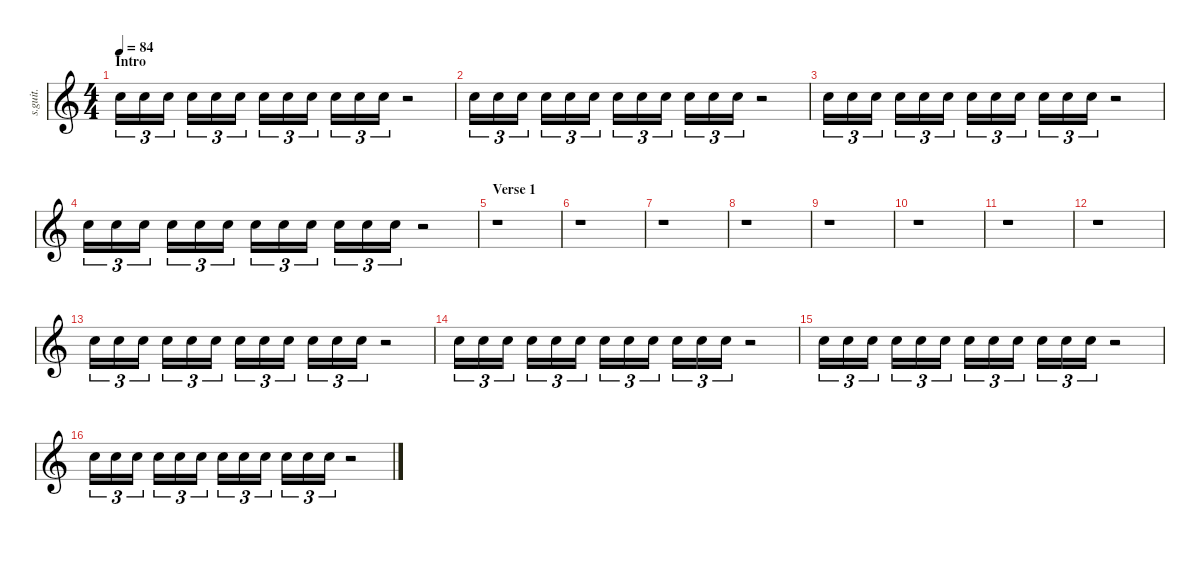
\defaultSystemsLayout 4
\hideDynamics
\bracketExtendMode nobrackets
\track ("RIngo Starr - Hand Claps" "s.guit.") {instrument percussion}
\staff {score}
\articulation defaults
\ts (4 4)
\beaming (8 2 2 2 2)
\section ("" "Intro")
\tempo 84
\clef g2
\ks c "Hand Clap (hit)".16{tu (3 2) lyrics (0 "") lyrics (1 "") lyrics (2 "") lyrics (3 "") lyrics (4 "") dy mf} "Hand Clap (hit)".16{tu (3 2) lyrics (0 "") lyrics (1 "") lyrics (2 "") lyrics (3 "") lyrics (4 "")} "Hand Clap (hit)".16{tu (3 2) lyrics (0 "") lyrics (1 "") lyrics (2 "") lyrics (3 "") lyrics (4 "")} "Hand Clap (hit)".16{tu (3 2) lyrics (0 "") lyrics (1 "") lyrics (2 "") lyrics (3 "") lyrics (4 "") dy mp} "Hand Clap (hit)".16{tu (3 2) lyrics (0 "") lyrics (1 "") lyrics (2 "") lyrics (3 "") lyrics (4 "")} "Hand Clap (hit)".16{tu (3 2) lyrics (0 "") lyrics (1 "") lyrics (2 "") lyrics (3 "") lyrics (4 "")} "Hand Clap (hit)".16{tu (3 2) lyrics (0 "") lyrics (1 "") lyrics (2 "") lyrics (3 "") lyrics (4 "") dy p} "Hand Clap (hit)".16{tu (3 2) lyrics (0 "") lyrics (1 "") lyrics (2 "") lyrics (3 "") lyrics (4 "")} "Hand Clap (hit)".16{tu (3 2) lyrics (0 "") lyrics (1 "") lyrics (2 "") lyrics (3 "") lyrics (4 "")} "Hand Clap (hit)".16{tu (3 2) lyrics (0 "") lyrics (1 "") lyrics (2 "") lyrics (3 "") lyrics (4 "") dy pp} "Hand Clap (hit)".16{tu (3 2) lyrics (0 "") lyrics (1 "") lyrics (2 "") lyrics (3 "") lyrics (4 "")} "Hand Clap (hit)".16{tu (3 2) lyrics (0 "") lyrics (1 "") lyrics (2 "") lyrics (3 "") lyrics (4 "")}
r.2 |
"Hand Clap (hit)".16{tu (3 2) lyrics (0 "") lyrics (1 "") lyrics (2 "") lyrics (3 "") lyrics (4 "") dy mf} "Hand Clap (hit)".16{tu (3 2) lyrics (0 "") lyrics (1 "") lyrics (2 "") lyrics (3 "") lyrics (4 "")} "Hand Clap (hit)".16{tu (3 2) lyrics (0 "") lyrics (1 "") lyrics (2 "") lyrics (3 "") lyrics (4 "")} "Hand Clap (hit)".16{tu (3 2) lyrics (0 "") lyrics (1 "") lyrics (2 "") lyrics (3 "") lyrics (4 "") dy mp} "Hand Clap (hit)".16{tu (3 2) lyrics (0 "") lyrics (1 "") lyrics (2 "") lyrics (3 "") lyrics (4 "")} "Hand Clap (hit)".16{tu (3 2) lyrics (0 "") lyrics (1 "") lyrics (2 "") lyrics (3 "") lyrics (4 "")} "Hand Clap (hit)".16{tu (3 2) lyrics (0 "") lyrics (1 "") lyrics (2 "") lyrics (3 "") lyrics (4 "") dy p} "Hand Clap (hit)".16{tu (3 2) lyrics (0 "") lyrics (1 "") lyrics (2 "") lyrics (3 "") lyrics (4 "")} "Hand Clap (hit)".16{tu (3 2) lyrics (0 "") lyrics (1 "") lyrics (2 "") lyrics (3 "") lyrics (4 "")} "Hand Clap (hit)".16{tu (3 2) lyrics (0 "") lyrics (1 "") lyrics (2 "") lyrics (3 "") lyrics (4 "") dy pp} "Hand Clap (hit)".16{tu (3 2) lyrics (0 "") lyrics (1 "") lyrics (2 "") lyrics (3 "") lyrics (4 "")} "Hand Clap (hit)".16{tu (3 2) lyrics (0 "") lyrics (1 "") lyrics (2 "") lyrics (3 "") lyrics (4 "")} r.2 |
"Hand Clap (hit)".16{tu (3 2) lyrics (0 "") lyrics (1 "") lyrics (2 "") lyrics (3 "") lyrics (4 "") dy mf} "Hand Clap (hit)".16{tu (3 2) lyrics (0 "") lyrics (1 "") lyrics (2 "") lyrics (3 "") lyrics (4 "")} "Hand Clap (hit)".16{tu (3 2) lyrics (0 "") lyrics (1 "") lyrics (2 "") lyrics (3 "") lyrics (4 "")} "Hand Clap (hit)".16{tu (3 2) lyrics (0 "") lyrics (1 "") lyrics (2 "") lyrics (3 "") lyrics (4 "") dy mp} "Hand Clap (hit)".16{tu (3 2) lyrics (0 "") lyrics (1 "") lyrics (2 "") lyrics (3 "") lyrics (4 "")} "Hand Clap (hit)".16{tu (3 2) lyrics (0 "") lyrics (1 "") lyrics (2 "") lyrics (3 "") lyrics (4 "")} "Hand Clap (hit)".16{tu (3 2) lyrics (0 "") lyrics (1 "") lyrics (2 "") lyrics (3 "") lyrics (4 "") dy p} "Hand Clap (hit)".16{tu (3 2) lyrics (0 "") lyrics (1 "") lyrics (2 "") lyrics (3 "") lyrics (4 "")} "Hand Clap (hit)".16{tu (3 2) lyrics (0 "") lyrics (1 "") lyrics (2 "") lyrics (3 "") lyrics (4 "")} "Hand Clap (hit)".16{tu (3 2) lyrics (0 "") lyrics (1 "") lyrics (2 "") lyrics (3 "") lyrics (4 "") dy pp} "Hand Clap (hit)".16{tu (3 2) lyrics (0 "") lyrics (1 "") lyrics (2 "") lyrics (3 "") lyrics (4 "")} "Hand Clap (hit)".16{tu (3 2) lyrics (0 "") lyrics (1 "") lyrics (2 "") lyrics (3 "") lyrics (4 "")} r.2 |
"Hand Clap (hit)".16{tu (3 2) lyrics (0 "") lyrics (1 "") lyrics (2 "") lyrics (3 "") lyrics (4 "") dy mf} "Hand Clap (hit)".16{tu (3 2) lyrics (0 "") lyrics (1 "") lyrics (2 "") lyrics (3 "") lyrics (4 "")} "Hand Clap (hit)".16{tu (3 2) lyrics (0 "") lyrics (1 "") lyrics (2 "") lyrics (3 "") lyrics (4 "")} "Hand Clap (hit)".16{tu (3 2) lyrics (0 "") lyrics (1 "") lyrics (2 "") lyrics (3 "") lyrics (4 "") dy mp} "Hand Clap (hit)".16{tu (3 2) lyrics (0 "") lyrics (1 "") lyrics (2 "") lyrics (3 "") lyrics (4 "")} "Hand Clap (hit)".16{tu (3 2) lyrics (0 "") lyrics (1 "") lyrics (2 "") lyrics (3 "") lyrics (4 "")} "Hand Clap (hit)".16{tu (3 2) lyrics (0 "") lyrics (1 "") lyrics (2 "") lyrics (3 "") lyrics (4 "") dy p} "Hand Clap (hit)".16{tu (3 2) lyrics (0 "") lyrics (1 "") lyrics (2 "") lyrics (3 "") lyrics (4 "")} "Hand Clap (hit)".16{tu (3 2) lyrics (0 "") lyrics (1 "") lyrics (2 "") lyrics (3 "") lyrics (4 "")} "Hand Clap (hit)".16{tu (3 2) lyrics (0 "") lyrics (1 "") lyrics (2 "") lyrics (3 "") lyrics (4 "") dy pp} "Hand Clap (hit)".16{tu (3 2) lyrics (0 "") lyrics (1 "") lyrics (2 "") lyrics (3 "") lyrics (4 "")} "Hand Clap (hit)".16{tu (3 2) lyrics (0 "") lyrics (1 "") lyrics (2 "") lyrics (3 "") lyrics (4 "")} r.2 |
\section ("" "Verse 1")
r.1 |
r.1 |
r.1 |
r.1 |
r.1 |
r.1 |
r.1 |
r.1 |
"Hand Clap (hit)".16{tu (3 2) lyrics (0 "") lyrics (1 "") lyrics (2 "") lyrics (3 "") lyrics (4 "") dy mf} "Hand Clap (hit)".16{tu (3 2) lyrics (0 "") lyrics (1 "") lyrics (2 "") lyrics (3 "") lyrics (4 "")} "Hand Clap (hit)".16{tu (3 2) lyrics (0 "") lyrics (1 "") lyrics (2 "") lyrics (3 "") lyrics (4 "")} "Hand Clap (hit)".16{tu (3 2) lyrics (0 "") lyrics (1 "") lyrics (2 "") lyrics (3 "") lyrics (4 "") dy mp} "Hand Clap (hit)".16{tu (3 2) lyrics (0 "") lyrics (1 "") lyrics (2 "") lyrics (3 "") lyrics (4 "")} "Hand Clap (hit)".16{tu (3 2) lyrics (0 "") lyrics (1 "") lyrics (2 "") lyrics (3 "") lyrics (4 "")} "Hand Clap (hit)".16{tu (3 2) lyrics (0 "") lyrics (1 "") lyrics (2 "") lyrics (3 "") lyrics (4 "") dy p} "Hand Clap (hit)".16{tu (3 2) lyrics (0 "") lyrics (1 "") lyrics (2 "") lyrics (3 "") lyrics (4 "")} "Hand Clap (hit)".16{tu (3 2) lyrics (0 "") lyrics (1 "") lyrics (2 "") lyrics (3 "") lyrics (4 "")} "Hand Clap (hit)".16{tu (3 2) lyrics (0 "") lyrics (1 "") lyrics (2 "") lyrics (3 "") lyrics (4 "") dy pp} "Hand Clap (hit)".16{tu (3 2) lyrics (0 "") lyrics (1 "") lyrics (2 "") lyrics (3 "") lyrics (4 "")} "Hand Clap (hit)".16{tu (3 2) lyrics (0 "") lyrics (1 "") lyrics (2 "") lyrics (3 "") lyrics (4 "")} r.2 |
"Hand Clap (hit)".16{tu (3 2) lyrics (0 "") lyrics (1 "") lyrics (2 "") lyrics (3 "") lyrics (4 "") dy mf} "Hand Clap (hit)".16{tu (3 2) lyrics (0 "") lyrics (1 "") lyrics (2 "") lyrics (3 "") lyrics (4 "")} "Hand Clap (hit)".16{tu (3 2) lyrics (0 "") lyrics (1 "") lyrics (2 "") lyrics (3 "") lyrics (4 "")} "Hand Clap (hit)".16{tu (3 2) lyrics (0 "") lyrics (1 "") lyrics (2 "") lyrics (3 "") lyrics (4 "") dy mp} "Hand Clap (hit)".16{tu (3 2) lyrics (0 "") lyrics (1 "") lyrics (2 "") lyrics (3 "") lyrics (4 "")} "Hand Clap (hit)".16{tu (3 2) lyrics (0 "") lyrics (1 "") lyrics (2 "") lyrics (3 "") lyrics (4 "")} "Hand Clap (hit)".16{tu (3 2) lyrics (0 "") lyrics (1 "") lyrics (2 "") lyrics (3 "") lyrics (4 "") dy p} "Hand Clap (hit)".16{tu (3 2) lyrics (0 "") lyrics (1 "") lyrics (2 "") lyrics (3 "") lyrics (4 "")} "Hand Clap (hit)".16{tu (3 2) lyrics (0 "") lyrics (1 "") lyrics (2 "") lyrics (3 "") lyrics (4 "")} "Hand Clap (hit)".16{tu (3 2) lyrics (0 "") lyrics (1 "") lyrics (2 "") lyrics (3 "") lyrics (4 "") dy pp} "Hand Clap (hit)".16{tu (3 2) lyrics (0 "") lyrics (1 "") lyrics (2 "") lyrics (3 "") lyrics (4 "")} "Hand Clap (hit)".16{tu (3 2) lyrics (0 "") lyrics (1 "") lyrics (2 "") lyrics (3 "") lyrics (4 "")} r.2 |
"Hand Clap (hit)".16{tu (3 2) lyrics (0 "") lyrics (1 "") lyrics (2 "") lyrics (3 "") lyrics (4 "") dy mf} "Hand Clap (hit)".16{tu (3 2) lyrics (0 "") lyrics (1 "") lyrics (2 "") lyrics (3 "") lyrics (4 "")} "Hand Clap (hit)".16{tu (3 2) lyrics (0 "") lyrics (1 "") lyrics (2 "") lyrics (3 "") lyrics (4 "")} "Hand Clap (hit)".16{tu (3 2) lyrics (0 "") lyrics (1 "") lyrics (2 "") lyrics (3 "") lyrics (4 "") dy mp} "Hand Clap (hit)".16{tu (3 2) lyrics (0 "") lyrics (1 "") lyrics (2 "") lyrics (3 "") lyrics (4 "")} "Hand Clap (hit)".16{tu (3 2) lyrics (0 "") lyrics (1 "") lyrics (2 "") lyrics (3 "") lyrics (4 "")} "Hand Clap (hit)".16{tu (3 2) lyrics (0 "") lyrics (1 "") lyrics (2 "") lyrics (3 "") lyrics (4 "") dy p} "Hand Clap (hit)".16{tu (3 2) lyrics (0 "") lyrics (1 "") lyrics (2 "") lyrics (3 "") lyrics (4 "")} "Hand Clap (hit)".16{tu (3 2) lyrics (0 "") lyrics (1 "") lyrics (2 "") lyrics (3 "") lyrics (4 "")} "Hand Clap (hit)".16{tu (3 2) lyrics (0 "") lyrics (1 "") lyrics (2 "") lyrics (3 "") lyrics (4 "") dy pp} "Hand Clap (hit)".16{tu (3 2) lyrics (0 "") lyrics (1 "") lyrics (2 "") lyrics (3 "") lyrics (4 "")} "Hand Clap (hit)".16{tu (3 2) lyrics (0 "") lyrics (1 "") lyrics (2 "") lyrics (3 "") lyrics (4 "")} r.2 |
"Hand Clap (hit)".16{tu (3 2) lyrics (0 "") lyrics (1 "") lyrics (2 "") lyrics (3 "") lyrics (4 "") dy mf} "Hand Clap (hit)".16{tu (3 2) lyrics (0 "") lyrics (1 "") lyrics (2 "") lyrics (3 "") lyrics (4 "")} "Hand Clap (hit)".16{tu (3 2) lyrics (0 "") lyrics (1 "") lyrics (2 "") lyrics (3 "") lyrics (4 "")} "Hand Clap (hit)".16{tu (3 2) lyrics (0 "") lyrics (1 "") lyrics (2 "") lyrics (3 "") lyrics (4 "") dy mp} "Hand Clap (hit)".16{tu (3 2) lyrics (0 "") lyrics (1 "") lyrics (2 "") lyrics (3 "") lyrics (4 "")} "Hand Clap (hit)".16{tu (3 2) lyrics (0 "") lyrics (1 "") lyrics (2 "") lyrics (3 "") lyrics (4 "")} "Hand Clap (hit)".16{tu (3 2) lyrics (0 "") lyrics (1 "") lyrics (2 "") lyrics (3 "") lyrics (4 "") dy p} "Hand Clap (hit)".16{tu (3 2) lyrics (0 "") lyrics (1 "") lyrics (2 "") lyrics (3 "") lyrics (4 "")} "Hand Clap (hit)".16{tu (3 2) lyrics (0 "") lyrics (1 "") lyrics (2 "") lyrics (3 "") lyrics (4 "")} "Hand Clap (hit)".16{tu (3 2) lyrics (0 "") lyrics (1 "") lyrics (2 "") lyrics (3 "") lyrics (4 "") dy pp} "Hand Clap (hit)".16{tu (3 2) lyrics (0 "") lyrics (1 "") lyrics (2 "") lyrics (3 "") lyrics (4 "")} "Hand Clap (hit)".16{tu (3 2) lyrics (0 "") lyrics (1 "") lyrics (2 "") lyrics (3 "") lyrics (4 "")} r.2
